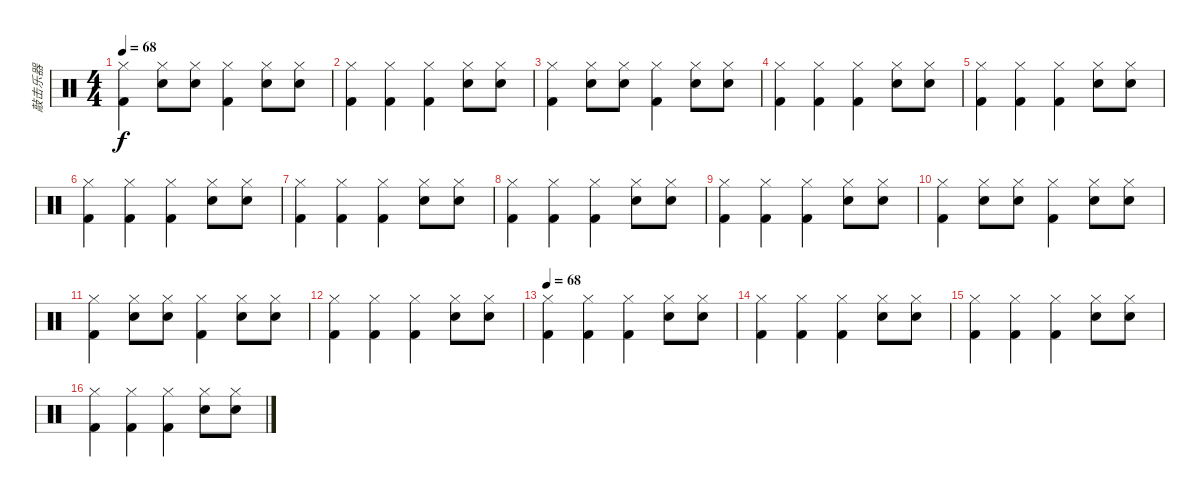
\track ("敲击乐器" "敲击乐器") {instrument percussion}
\staff {score}
\articulation defaults
\ts (4 4)
\tempo 68
\clef neutral
\ks c
("Kick (hit) 2" "Hi-Hat (closed)").4{dy f} ("Snare (hit) 2" "Hi-Hat (closed)").8 ("Snare (hit) 2" "Hi-Hat (closed)").8 ("Kick (hit) 2" "Hi-Hat (closed)").4 ("Snare (hit) 2" "Hi-Hat (closed)").8 ("Snare (hit) 2" "Hi-Hat (closed)").8 |
("Kick (hit) 2" "Hi-Hat (closed)").4 ("Kick (hit) 2" "Hi-Hat (closed)").4 ("Kick (hit) 2" "Hi-Hat (closed)").4 ("Snare (hit) 2" "Hi-Hat (closed)").8 ("Snare (hit) 2" "Hi-Hat (closed)").8 |
("Kick (hit) 2" "Hi-Hat (closed)").4 ("Snare (hit) 2" "Hi-Hat (closed)").8 ("Snare (hit) 2" "Hi-Hat (closed)").8 ("Kick (hit) 2" "Hi-Hat (closed)").4 ("Snare (hit) 2" "Hi-Hat (closed)").8 ("Snare (hit) 2" "Hi-Hat (closed)").8 |
("Kick (hit) 2" "Hi-Hat (closed)").4 ("Kick (hit) 2" "Hi-Hat (closed)").4 ("Kick (hit) 2" "Hi-Hat (closed)").4 ("Snare (hit) 2" "Hi-Hat (closed)").8 ("Snare (hit) 2" "Hi-Hat (closed)").8 |
("Kick (hit) 2" "Hi-Hat (closed)").4 ("Kick (hit) 2" "Hi-Hat (closed)").4 ("Kick (hit) 2" "Hi-Hat (closed)").4 ("Snare (hit) 2" "Hi-Hat (closed)").8 ("Snare (hit) 2" "Hi-Hat (closed)").8 |
("Kick (hit) 2" "Hi-Hat (closed)").4 ("Kick (hit) 2" "Hi-Hat (closed)").4 ("Kick (hit) 2" "Hi-Hat (closed)").4 ("Snare (hit) 2" "Hi-Hat (closed)").8 ("Snare (hit) 2" "Hi-Hat (closed)").8 |
("Kick (hit) 2" "Hi-Hat (closed)").4 ("Kick (hit) 2" "Hi-Hat (closed)").4 ("Kick (hit) 2" "Hi-Hat (closed)").4 ("Snare (hit) 2" "Hi-Hat (closed)").8 ("Snare (hit) 2" "Hi-Hat (closed)").8 |
("Kick (hit) 2" "Hi-Hat (closed)").4 ("Kick (hit) 2" "Hi-Hat (closed)").4 ("Kick (hit) 2" "Hi-Hat (closed)").4 ("Snare (hit) 2" "Hi-Hat (closed)").8 ("Snare (hit) 2" "Hi-Hat (closed)").8 |
("Kick (hit) 2" "Hi-Hat (closed)").4 ("Kick (hit) 2" "Hi-Hat (closed)").4 ("Kick (hit) 2" "Hi-Hat (closed)").4 ("Snare (hit) 2" "Hi-Hat (closed)").8 ("Snare (hit) 2" "Hi-Hat (closed)").8 |
("Kick (hit) 2" "Hi-Hat (closed)").4 ("Snare (hit) 2" "Hi-Hat (closed)").8 ("Snare (hit) 2" "Hi-Hat (closed)").8 ("Kick (hit) 2" "Hi-Hat (closed)").4 ("Snare (hit) 2" "Hi-Hat (closed)").8 ("Snare (hit) 2" "Hi-Hat (closed)").8 |
("Kick (hit) 2" "Hi-Hat (closed)").4 ("Snare (hit) 2" "Hi-Hat (closed)").8 ("Snare (hit) 2" "Hi-Hat (closed)").8 ("Kick (hit) 2" "Hi-Hat (closed)").4 ("Snare (hit) 2" "Hi-Hat (closed)").8 ("Snare (hit) 2" "Hi-Hat (closed)").8 |
("Kick (hit) 2" "Hi-Hat (closed)").4 ("Kick (hit) 2" "Hi-Hat (closed)").4 ("Kick (hit) 2" "Hi-Hat (closed)").4 ("Snare (hit) 2" "Hi-Hat (closed)").8 ("Snare (hit) 2" "Hi-Hat (closed)").8 |
\tempo 68
("Kick (hit) 2" "Hi-Hat (closed)").4 ("Kick (hit) 2" "Hi-Hat (closed)").4 ("Kick (hit) 2" "Hi-Hat (closed)").4 ("Snare (hit) 2" "Hi-Hat (closed)").8 ("Snare (hit) 2" "Hi-Hat (closed)").8 |
("Kick (hit) 2" "Hi-Hat (closed)").4 ("Kick (hit) 2" "Hi-Hat (closed)").4 ("Kick (hit) 2" "Hi-Hat (closed)").4 ("Snare (hit) 2" "Hi-Hat (closed)").8 ("Snare (hit) 2" "Hi-Hat (closed)").8 |
("Kick (hit) 2" "Hi-Hat (closed)").4 ("Kick (hit) 2" "Hi-Hat (closed)").4 ("Kick (hit) 2" "Hi-Hat (closed)").4 ("Snare (hit) 2" "Hi-Hat (closed)").8 ("Snare (hit) 2" "Hi-Hat (closed)").8 |
("Kick (hit) 2" "Hi-Hat (closed)").4 ("Kick (hit) 2" "Hi-Hat (closed)").4 ("Kick (hit) 2" "Hi-Hat (closed)").4 ("Snare (hit) 2" "Hi-Hat (closed)").8 ("Snare (hit) 2" "Hi-Hat (closed)").8
